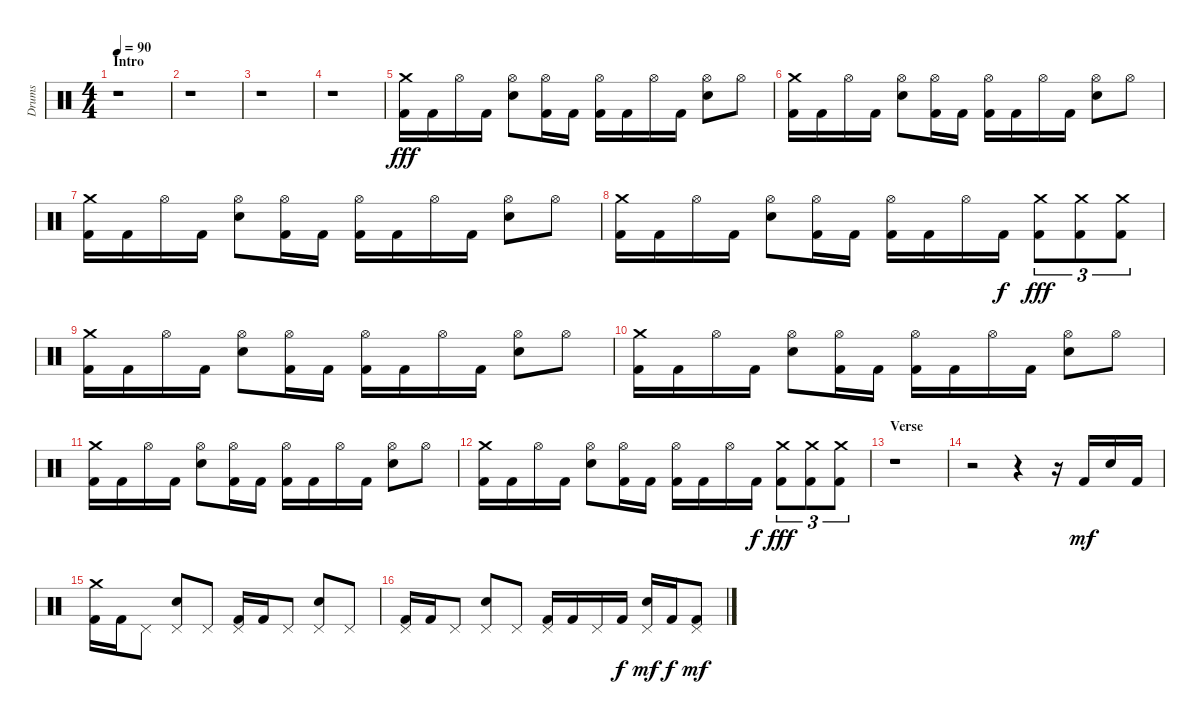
\track ("Drums" "Drums") {instrument percussion}
\staff {score}
\articulation defaults
\ts (4 4)
\section ("" "Intro")
\tempo 90
\clef neutral
\ks c
r.1{dy fff} |
r.1 |
r.1 |
r.1 |
("Crash medium (hit)" "Kick (hit) 2").16 "Kick (hit) 2".16 "Hi-Hat (open)".16 "Kick (hit) 2".16 ("Hi-Hat (open)" "Electric Snare (hit)").8 ("Hi-Hat (open)" "Kick (hit) 2").16 "Kick (hit) 2".16 ("Hi-Hat (open)" "Kick (hit) 2").16 "Kick (hit) 2".16 "Hi-Hat (open)".16 "Kick (hit) 2".16 ("Hi-Hat (open)" "Electric Snare (hit)").8 "Hi-Hat (open)".8 |
("Crash medium (hit)" "Kick (hit) 2").16 "Kick (hit) 2".16 "Hi-Hat (open)".16 "Kick (hit) 2".16 ("Hi-Hat (open)" "Electric Snare (hit)").8 ("Hi-Hat (open)" "Kick (hit) 2").16 "Kick (hit) 2".16 ("Hi-Hat (open)" "Kick (hit) 2").16 "Kick (hit) 2".16 "Hi-Hat (open)".16 "Kick (hit) 2".16 ("Hi-Hat (open)" "Electric Snare (hit)").8 "Hi-Hat (open)".8 |
("Crash medium (hit)" "Kick (hit) 2").16 "Kick (hit) 2".16 "Hi-Hat (open)".16 "Kick (hit) 2".16 ("Hi-Hat (open)" "Electric Snare (hit)").8 ("Hi-Hat (open)" "Kick (hit) 2").16 "Kick (hit) 2".16 ("Hi-Hat (open)" "Kick (hit) 2").16 "Kick (hit) 2".16 "Hi-Hat (open)".16 "Kick (hit) 2".16 ("Hi-Hat (open)" "Electric Snare (hit)").8 "Hi-Hat (open)".8 |
("Crash medium (hit)" "Kick (hit) 2").16 "Kick (hit) 2".16 "Hi-Hat (open)".16 "Kick (hit) 2".16 ("Hi-Hat (open)" "Electric Snare (hit)").8 ("Hi-Hat (open)" "Kick (hit) 2").16 "Kick (hit) 2".16 ("Hi-Hat (open)" "Kick (hit) 2").16 "Kick (hit) 2".16 "Hi-Hat (open)".16 "Kick (hit) 2".16{dy f} ("Crash medium (hit)" "Kick (hit) 2").8{tu (3 2) dy fff} ("Crash medium (hit)" "Kick (hit) 2").8{tu (3 2)} ("Crash medium (hit)" "Kick (hit) 2").8{tu (3 2)} |
("Crash medium (hit)" "Kick (hit) 2").16 "Kick (hit) 2".16 "Hi-Hat (open)".16 "Kick (hit) 2".16 ("Hi-Hat (open)" "Electric Snare (hit)").8 ("Hi-Hat (open)" "Kick (hit) 2").16 "Kick (hit) 2".16 ("Hi-Hat (open)" "Kick (hit) 2").16 "Kick (hit) 2".16 "Hi-Hat (open)".16 "Kick (hit) 2".16 ("Hi-Hat (open)" "Electric Snare (hit)").8 "Hi-Hat (open)".8 |
("Crash medium (hit)" "Kick (hit) 2").16 "Kick (hit) 2".16 "Hi-Hat (open)".16 "Kick (hit) 2".16 ("Hi-Hat (open)" "Electric Snare (hit)").8 ("Hi-Hat (open)" "Kick (hit) 2").16 "Kick (hit) 2".16 ("Hi-Hat (open)" "Kick (hit) 2").16 "Kick (hit) 2".16 "Hi-Hat (open)".16 "Kick (hit) 2".16 ("Hi-Hat (open)" "Electric Snare (hit)").8 "Hi-Hat (open)".8 |
("Crash medium (hit)" "Kick (hit) 2").16 "Kick (hit) 2".16 "Hi-Hat (open)".16 "Kick (hit) 2".16 ("Hi-Hat (open)" "Electric Snare (hit)").8 ("Hi-Hat (open)" "Kick (hit) 2").16 "Kick (hit) 2".16 ("Hi-Hat (open)" "Kick (hit) 2").16 "Kick (hit) 2".16 "Hi-Hat (open)".16 "Kick (hit) 2".16 ("Hi-Hat (open)" "Electric Snare (hit)").8 "Hi-Hat (open)".8 |
("Crash medium (hit)" "Kick (hit) 2").16 "Kick (hit) 2".16 "Hi-Hat (open)".16 "Kick (hit) 2".16 ("Hi-Hat (open)" "Electric Snare (hit)").8 ("Hi-Hat (open)" "Kick (hit) 2").16 "Kick (hit) 2".16 ("Hi-Hat (open)" "Kick (hit) 2").16 "Kick (hit) 2".16 "Hi-Hat (open)".16 "Kick (hit) 2".16{dy f} ("Crash medium (hit)" "Kick (hit) 2").8{tu (3 2) dy fff} ("Crash medium (hit)" "Kick (hit) 2").8{tu (3 2)} ("Crash medium (hit)" "Kick (hit) 2").8{tu (3 2)} |
\section ("" "Verse")
r.1 |
r.2 r.4 r.16 "Kick (hit) 2".16{dy mf} "Electric Snare (hit)".16 "Kick (hit) 2".16 |
("Crash medium (hit)" "Kick (hit) 2").16 "Kick (hit) 2".16 "Pedal Hi-Hat (hit)".8 ("Pedal Hi-Hat (hit)" "Electric Snare (hit)").8 "Pedal Hi-Hat (hit)".8 ("Pedal Hi-Hat (hit)" "Kick (hit) 2").16 "Kick (hit) 2".16 "Pedal Hi-Hat (hit)".8 ("Pedal Hi-Hat (hit)" "Electric Snare (hit)").8 "Pedal Hi-Hat (hit)".8 |
("Pedal Hi-Hat (hit)" "Kick (hit) 2").16 "Kick (hit) 2".16 "Pedal Hi-Hat (hit)".8 ("Pedal Hi-Hat (hit)" "Electric Snare (hit)").8 "Pedal Hi-Hat (hit)".8 ("Pedal Hi-Hat (hit)" "Kick (hit) 2").16 "Kick (hit) 2".16 "Pedal Hi-Hat (hit)".16 "Kick (hit) 2".16{dy f} ("Pedal Hi-Hat (hit)" "Electric Snare (hit)").16{dy mf} "Kick (hit) 2".16{dy f} ("Pedal Hi-Hat (hit)" "Kick (hit) 2").8{dy mf}
